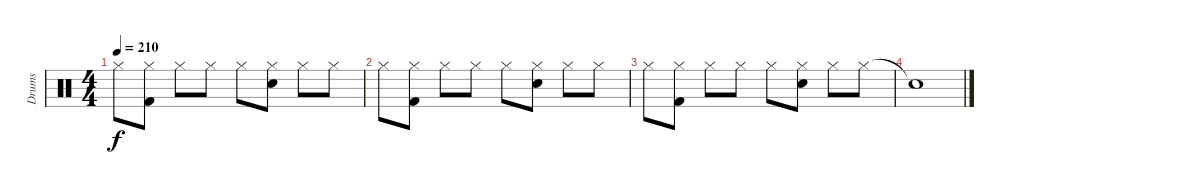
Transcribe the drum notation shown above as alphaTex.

\track ("Drums" "Drums") {instrument percussion}
\staff {score}
\articulation defaults
\ts (4 4)
\tempo 210
\clef neutral
\ks c "Hi-Hat (closed)".8{dy f}
("Hi-Hat (closed)" "Kick (hit) 2").8 "Hi-Hat (closed)".8 "Hi-Hat (closed)".8 "Hi-Hat (closed)".8 ("Hi-Hat (closed)" "Electric Snare (hit)").8 "Hi-Hat (closed)".8 "Hi-Hat (closed)".8 |
"Hi-Hat (closed)".8 ("Hi-Hat (closed)" "Kick (hit) 2").8 "Hi-Hat (closed)".8 "Hi-Hat (closed)".8 "Hi-Hat (closed)".8 ("Hi-Hat (closed)" "Electric Snare (hit)").8 "Hi-Hat (closed)".8 "Hi-Hat (closed)".8 |
"Hi-Hat (closed)".8 ("Hi-Hat (closed)" "Kick (hit) 2").8 "Hi-Hat (closed)".8 "Hi-Hat (closed)".8 "Hi-Hat (closed)".8 ("Hi-Hat (closed)" "Electric Snare (hit)").8 "Hi-Hat (closed)".8 "Hi-Hat (closed)".8 |
"Snare (hit)"{t}.1
